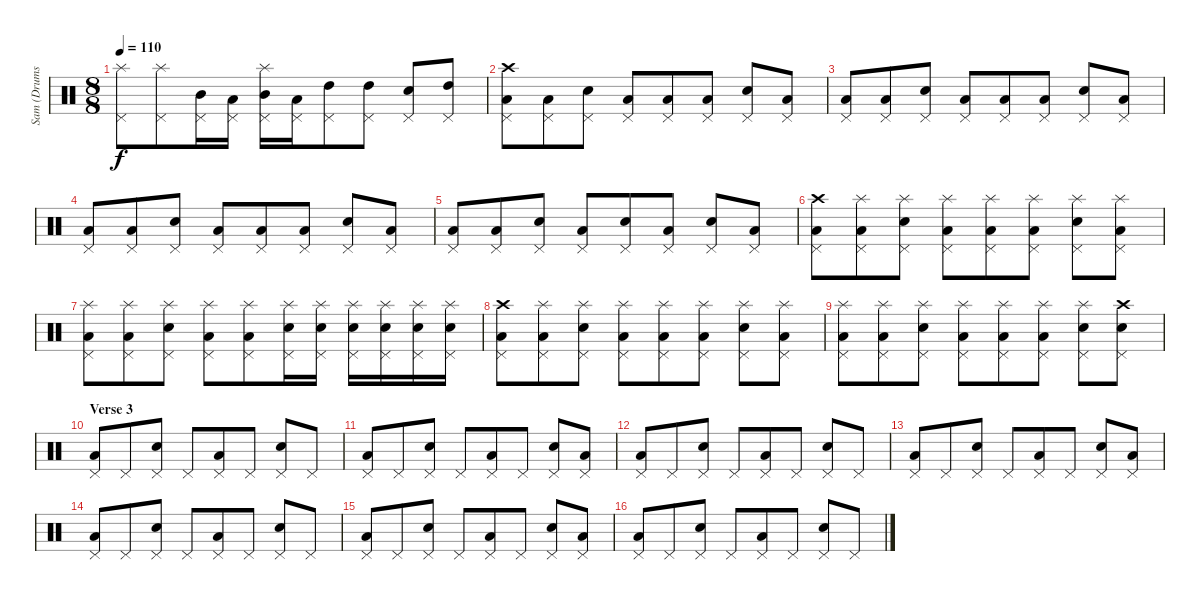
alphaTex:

\track ("Sam (Drums)" "Sam (Drums") {instrument percussion}
\staff {score}
\articulation defaults
\ts (8 8)
\tempo 110
\clef neutral
\ks c
("Splash (hit)" "Pedal Hi-Hat (hit)").8{dy f} ("Splash (hit)" "Pedal Hi-Hat (hit)").8 ("Mid Tom (hit)" "Pedal Hi-Hat (hit)").16 ("Low Tom (hit)" "Pedal Hi-Hat (hit)").16 ("Splash (hit)" "Mid Tom (hit)" "Pedal Hi-Hat (hit)").16 ("Low Tom (hit)" "Pedal Hi-Hat (hit)").16 ("High Tom (hit)" "Pedal Hi-Hat (hit)").8 ("High Tom (hit)" "Pedal Hi-Hat (hit)").8 ("Snare (hit) 2" "Pedal Hi-Hat (hit)").8 ("High Tom (hit)" "Pedal Hi-Hat (hit)").8 |
("Crash high (hit)" "Low Tom (hit)" "Pedal Hi-Hat (hit)").8 ("Low Tom (hit)" "Pedal Hi-Hat (hit)").8 ("Snare (hit) 2" "Pedal Hi-Hat (hit)").8 ("Low Tom (hit)" "Pedal Hi-Hat (hit)").8 ("Low Tom (hit)" "Pedal Hi-Hat (hit)").8 ("Low Tom (hit)" "Pedal Hi-Hat (hit)").8 ("Snare (hit) 2" "Pedal Hi-Hat (hit)").8 ("Low Tom (hit)" "Pedal Hi-Hat (hit)").8 |
("Low Tom (hit)" "Pedal Hi-Hat (hit)").8 ("Low Tom (hit)" "Pedal Hi-Hat (hit)").8 ("Snare (hit) 2" "Pedal Hi-Hat (hit)").8 ("Low Tom (hit)" "Pedal Hi-Hat (hit)").8 ("Low Tom (hit)" "Pedal Hi-Hat (hit)").8 ("Low Tom (hit)" "Pedal Hi-Hat (hit)").8 ("Snare (hit) 2" "Pedal Hi-Hat (hit)").8 ("Low Tom (hit)" "Pedal Hi-Hat (hit)").8 |
("Low Tom (hit)" "Pedal Hi-Hat (hit)").8 ("Low Tom (hit)" "Pedal Hi-Hat (hit)").8 ("Snare (hit) 2" "Pedal Hi-Hat (hit)").8 ("Low Tom (hit)" "Pedal Hi-Hat (hit)").8 ("Low Tom (hit)" "Pedal Hi-Hat (hit)").8 ("Low Tom (hit)" "Pedal Hi-Hat (hit)").8 ("Snare (hit) 2" "Pedal Hi-Hat (hit)").8 ("Low Tom (hit)" "Pedal Hi-Hat (hit)").8 |
("Low Tom (hit)" "Pedal Hi-Hat (hit)").8 ("Low Tom (hit)" "Pedal Hi-Hat (hit)").8 ("Snare (hit) 2" "Pedal Hi-Hat (hit)").8 ("Low Tom (hit)" "Pedal Hi-Hat (hit)").8 ("Snare (hit) 2" "Pedal Hi-Hat (hit)").8 ("Low Tom (hit)" "Pedal Hi-Hat (hit)").8 ("Snare (hit) 2" "Pedal Hi-Hat (hit)").8 ("Low Tom (hit)" "Pedal Hi-Hat (hit)").8 |
("Crash high (hit)" "Low Tom (hit)" "Pedal Hi-Hat (hit)").8 ("Splash (hit)" "Low Tom (hit)" "Pedal Hi-Hat (hit)").8 ("Splash (hit)" "Snare (hit) 2" "Pedal Hi-Hat (hit)").8 ("Splash (hit)" "Low Tom (hit)" "Pedal Hi-Hat (hit)").8 ("Splash (hit)" "Low Tom (hit)" "Pedal Hi-Hat (hit)").8 ("Splash (hit)" "Low Tom (hit)" "Pedal Hi-Hat (hit)").8 ("Splash (hit)" "Snare (hit) 2" "Pedal Hi-Hat (hit)").8 ("Splash (hit)" "Low Tom (hit)" "Pedal Hi-Hat (hit)").8 |
("Splash (hit)" "Low Tom (hit)" "Pedal Hi-Hat (hit)").8 ("Splash (hit)" "Low Tom (hit)" "Pedal Hi-Hat (hit)").8 ("Splash (hit)" "Snare (hit) 2" "Pedal Hi-Hat (hit)").8 ("Splash (hit)" "Low Tom (hit)" "Pedal Hi-Hat (hit)").8 ("Splash (hit)" "Low Tom (hit)" "Pedal Hi-Hat (hit)").8 ("Splash (hit)" "Snare (hit) 2" "Pedal Hi-Hat (hit)").16 ("Splash (hit)" "Snare (hit) 2" "Pedal Hi-Hat (hit)").16 ("Splash (hit)" "Snare (hit) 2" "Pedal Hi-Hat (hit)").16 ("Splash (hit)" "Snare (hit) 2" "Pedal Hi-Hat (hit)").16 ("Splash (hit)" "Snare (hit) 2" "Pedal Hi-Hat (hit)").16 ("Splash (hit)" "Snare (hit) 2" "Pedal Hi-Hat (hit)").16 |
("Crash high (hit)" "Low Tom (hit)" "Pedal Hi-Hat (hit)").8 ("Splash (hit)" "Low Tom (hit)" "Pedal Hi-Hat (hit)").8 ("Splash (hit)" "Snare (hit) 2" "Pedal Hi-Hat (hit)").8 ("Splash (hit)" "Low Tom (hit)" "Pedal Hi-Hat (hit)").8 ("Splash (hit)" "Low Tom (hit)" "Pedal Hi-Hat (hit)").8 ("Splash (hit)" "Low Tom (hit)" "Pedal Hi-Hat (hit)").8 ("Splash (hit)" "Snare (hit) 2" "Pedal Hi-Hat (hit)").8 ("Splash (hit)" "Low Tom (hit)" "Pedal Hi-Hat (hit)").8 |
("Splash (hit)" "Low Tom (hit)" "Pedal Hi-Hat (hit)").8 ("Splash (hit)" "Low Tom (hit)" "Pedal Hi-Hat (hit)").8 ("Splash (hit)" "Snare (hit) 2" "Pedal Hi-Hat (hit)").8 ("Splash (hit)" "Low Tom (hit)" "Pedal Hi-Hat (hit)").8 ("Splash (hit)" "Low Tom (hit)" "Pedal Hi-Hat (hit)").8 ("Splash (hit)" "Low Tom (hit)" "Pedal Hi-Hat (hit)").8 ("Splash (hit)" "Snare (hit) 2" "Pedal Hi-Hat (hit)").8 ("Crash high (hit)" "Snare (hit) 2" "Pedal Hi-Hat (hit)").8 |
\section ("" "Verse 3")
("Low Tom (hit)" "Pedal Hi-Hat (hit)").8 "Pedal Hi-Hat (hit)".8 ("Snare (hit) 2" "Pedal Hi-Hat (hit)").8 "Pedal Hi-Hat (hit)".8 ("Low Tom (hit)" "Pedal Hi-Hat (hit)").8 "Pedal Hi-Hat (hit)".8 ("Snare (hit) 2" "Pedal Hi-Hat (hit)").8 "Pedal Hi-Hat (hit)".8 |
("Low Tom (hit)" "Pedal Hi-Hat (hit)").8 "Pedal Hi-Hat (hit)".8 ("Snare (hit) 2" "Pedal Hi-Hat (hit)").8 "Pedal Hi-Hat (hit)".8 ("Low Tom (hit)" "Pedal Hi-Hat (hit)").8 "Pedal Hi-Hat (hit)".8 ("Snare (hit) 2" "Pedal Hi-Hat (hit)").8 ("Low Tom (hit)" "Pedal Hi-Hat (hit)").8 |
("Low Tom (hit)" "Pedal Hi-Hat (hit)").8 "Pedal Hi-Hat (hit)".8 ("Snare (hit) 2" "Pedal Hi-Hat (hit)").8 "Pedal Hi-Hat (hit)".8 ("Low Tom (hit)" "Pedal Hi-Hat (hit)").8 "Pedal Hi-Hat (hit)".8 ("Snare (hit) 2" "Pedal Hi-Hat (hit)").8 "Pedal Hi-Hat (hit)".8 |
("Low Tom (hit)" "Pedal Hi-Hat (hit)").8 "Pedal Hi-Hat (hit)".8 ("Snare (hit) 2" "Pedal Hi-Hat (hit)").8 "Pedal Hi-Hat (hit)".8 ("Low Tom (hit)" "Pedal Hi-Hat (hit)").8 "Pedal Hi-Hat (hit)".8 ("Snare (hit) 2" "Pedal Hi-Hat (hit)").8 ("Low Tom (hit)" "Pedal Hi-Hat (hit)").8 |
("Low Tom (hit)" "Pedal Hi-Hat (hit)").8 "Pedal Hi-Hat (hit)".8 ("Snare (hit) 2" "Pedal Hi-Hat (hit)").8 "Pedal Hi-Hat (hit)".8 ("Low Tom (hit)" "Pedal Hi-Hat (hit)").8 "Pedal Hi-Hat (hit)".8 ("Snare (hit) 2" "Pedal Hi-Hat (hit)").8 "Pedal Hi-Hat (hit)".8 |
("Low Tom (hit)" "Pedal Hi-Hat (hit)").8 "Pedal Hi-Hat (hit)".8 ("Snare (hit) 2" "Pedal Hi-Hat (hit)").8 "Pedal Hi-Hat (hit)".8 ("Low Tom (hit)" "Pedal Hi-Hat (hit)").8 "Pedal Hi-Hat (hit)".8 ("Snare (hit) 2" "Pedal Hi-Hat (hit)").8 ("Low Tom (hit)" "Pedal Hi-Hat (hit)").8 |
("Low Tom (hit)" "Pedal Hi-Hat (hit)").8 "Pedal Hi-Hat (hit)".8 ("Snare (hit) 2" "Pedal Hi-Hat (hit)").8 "Pedal Hi-Hat (hit)".8 ("Low Tom (hit)" "Pedal Hi-Hat (hit)").8 "Pedal Hi-Hat (hit)".8 ("Snare (hit) 2" "Pedal Hi-Hat (hit)").8 "Pedal Hi-Hat (hit)".8
